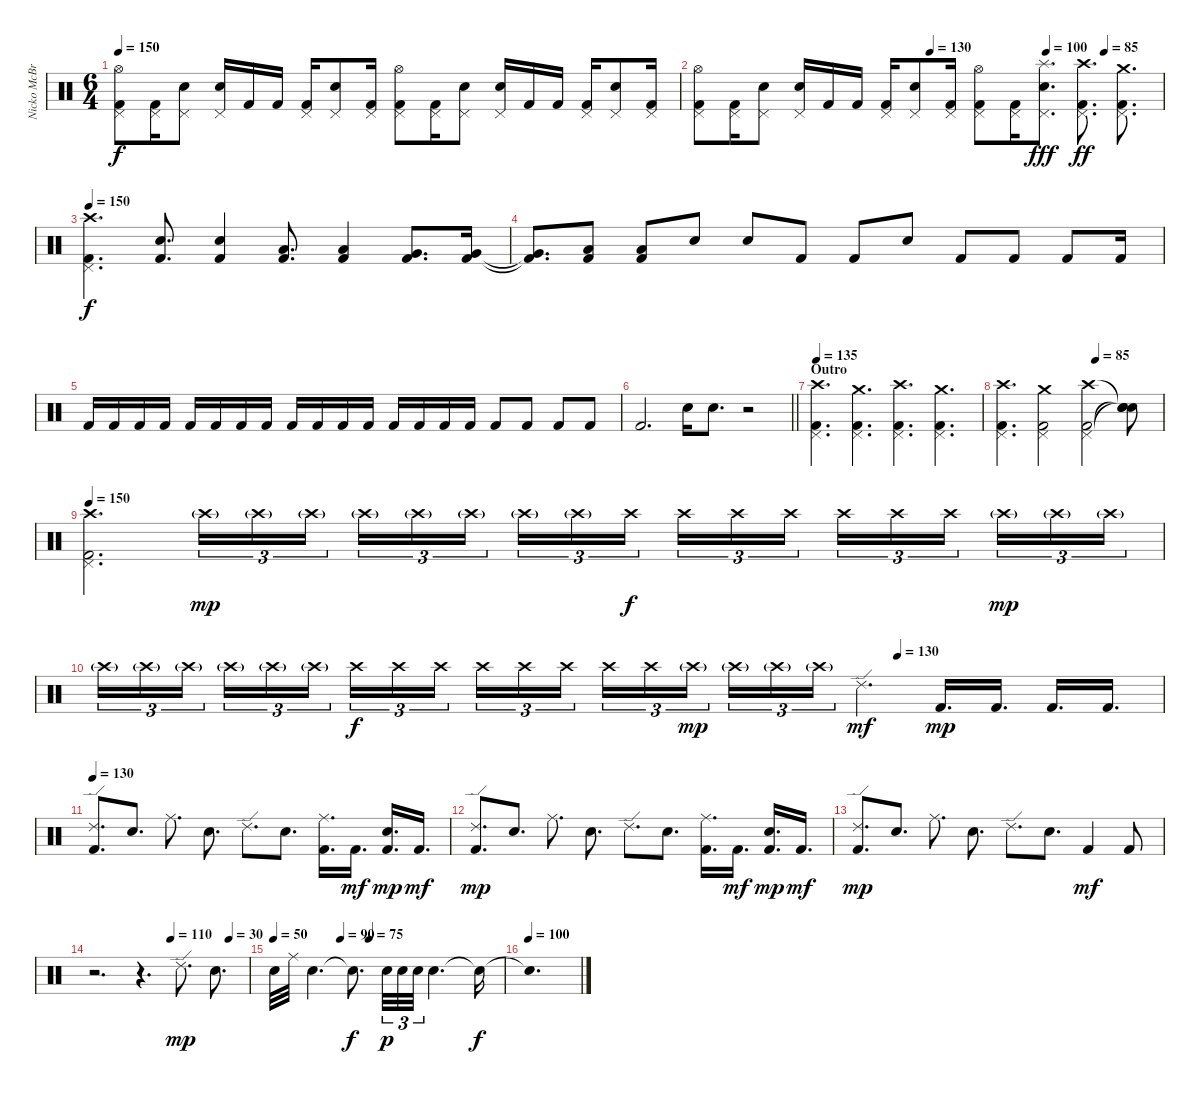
\track ("Nicko McBrain" "Nicko McBr") {instrument percussion}
\staff {score}
\articulation defaults
\ts (6 4)
\tempo 150
\clef neutral
\ks c
("Kick (hit) 2" "Pedal Hi-Hat (hit)" "Hi-Hat (open)").8{dy f} ("Kick (hit) 2" "Pedal Hi-Hat (hit)").16 ("Snare (hit) 2" "Pedal Hi-Hat (hit)").8 ("Snare (hit) 2" "Pedal Hi-Hat (hit)").16 "Kick (hit) 2".16 "Kick (hit) 2".16 ("Kick (hit) 2" "Pedal Hi-Hat (hit)").16 ("Snare (hit) 2" "Pedal Hi-Hat (hit)").8 ("Kick (hit) 2" "Pedal Hi-Hat (hit)").16 ("Kick (hit) 2" "Pedal Hi-Hat (hit)" "Hi-Hat (open)").8 ("Kick (hit) 2" "Pedal Hi-Hat (hit)").16 ("Snare (hit) 2" "Pedal Hi-Hat (hit)").8 ("Snare (hit) 2" "Pedal Hi-Hat (hit)").16 "Kick (hit) 2".16 "Kick (hit) 2".16 ("Kick (hit) 2" "Pedal Hi-Hat (hit)").16 ("Snare (hit) 2" "Pedal Hi-Hat (hit)").8 ("Kick (hit) 2" "Pedal Hi-Hat (hit)").16 |
\tempo (130 0.5)
\tempo (100 0.75)
\tempo (85 0.875)
("Kick (hit) 2" "Pedal Hi-Hat (hit)" "Hi-Hat (open)").8 ("Kick (hit) 2" "Pedal Hi-Hat (hit)").16 ("Snare (hit) 2" "Pedal Hi-Hat (hit)").8 ("Snare (hit) 2" "Pedal Hi-Hat (hit)").16 "Kick (hit) 2".16 "Kick (hit) 2".16 ("Kick (hit) 2" "Pedal Hi-Hat (hit)").16 ("Snare (hit) 2" "Pedal Hi-Hat (hit)").8 ("Kick (hit) 2" "Pedal Hi-Hat (hit)").16 ("Kick (hit) 2" "Pedal Hi-Hat (hit)" "Hi-Hat (open)").8 ("Kick (hit) 2" "Pedal Hi-Hat (hit)").16 ("Snare (hit) 2" "Pedal Hi-Hat (hit)" "Splash (hit)").8{d dy fff} ("Kick (hit) 2" "Pedal Hi-Hat (hit)" "Crash high (hit)").8{d dy ff} ("Kick (hit) 2" "Pedal Hi-Hat (hit)" "Crash medium (hit)").8{d} |
\tempo 150
("Kick (hit) 2" "Pedal Hi-Hat (hit)" "Crash high (hit)").4{d dy f} ("Kick (hit) 2" "Snare (hit) 2").8{d} ("Kick (hit) 2" "Snare (hit) 2").4 ("Kick (hit) 2" "Low Tom (hit)").8{d} ("Kick (hit) 2" "Low Tom (hit)").4 ("Kick (hit) 2" "Very Low Tom (hit)").8{d} ("Kick (hit) 2" "Very Low Tom (hit)").16 |
("Kick (hit) 2"{t} "Very Low Tom (hit)"{t}).8{d} ("Kick (hit) 2" "Low Floor Tom (hit)").8 ("Kick (hit) 2" "Low Floor Tom (hit)").8 "Snare (hit) 2".8 "Snare (hit) 2".8 "Kick (hit) 2".8 "Kick (hit) 2".8 "Snare (hit) 2".8 "Kick (hit) 2".8 "Kick (hit) 2".8 "Kick (hit) 2".8 "Kick (hit) 2".16 |
"Kick (hit) 2".16 "Kick (hit) 2".16 "Kick (hit) 2".16 "Kick (hit) 2".16 "Kick (hit) 2".16 "Kick (hit) 2".16 "Kick (hit) 2".16 "Kick (hit) 2".16 "Kick (hit) 2".16 "Kick (hit) 2".16 "Kick (hit) 2".16 "Kick (hit) 2".16 "Kick (hit) 2".16 "Kick (hit) 2".16 "Kick (hit) 2".16 "Kick (hit) 2".16 "Kick (hit) 2".8 "Kick (hit) 2".8 "Kick (hit) 2".8 "Kick (hit) 2".8 |
\barLineRight lightlight "Kick (hit) 2".2{d} "Snare (hit) 2".16 "Snare (hit) 2".8{d}
r.2 |
\section ("" "Outro")
\tempo 135
("Kick (hit) 2" "Pedal Hi-Hat (hit)" "Crash high (hit)").4{d} ("Kick (hit) 2" "Pedal Hi-Hat (hit)" "Crash medium (hit)").4{d} ("Kick (hit) 2" "Pedal Hi-Hat (hit)" "Crash high (hit)").4{d} ("Kick (hit) 2" "Pedal Hi-Hat (hit)" "Crash medium (hit)").4{d} |
\tempo (85 0.5833333333333334)
("Kick (hit) 2" "Pedal Hi-Hat (hit)" "Crash high (hit)").4{d} ("Kick (hit) 2" "Pedal Hi-Hat (hit)" "Crash medium (hit)").2 ("Kick (hit) 2" "Pedal Hi-Hat (hit)" "Crash high (hit)").2 ("Snare (hit)"{t} "Snare (hit)"{t} "Snare (hit)"{t}).8 |
\tempo 150
("Kick (hit) 2" "Pedal Hi-Hat (hit)" "Crash high (hit)").2{d} "Crash high (hit)"{g}.16{tu (3 2) dy mp} "Crash high (hit)"{g}.16{tu (3 2)} "Crash high (hit)"{g}.16{tu (3 2) beam splitsecondary} "Crash high (hit)"{g}.16{tu (3 2)} "Crash high (hit)"{g}.16{tu (3 2)} "Crash high (hit)"{g}.16{tu (3 2) beam splitsecondary} "Crash high (hit)"{g}.16{tu (3 2)} "Crash high (hit)"{g}.16{tu (3 2)} "Crash high (hit)".16{tu (3 2) dy f beam splitsecondary} "Crash high (hit)".16{tu (3 2)} "Crash high (hit)".16{tu (3 2)} "Crash high (hit)".16{tu (3 2) beam splitsecondary} "Crash high (hit)".16{tu (3 2)} "Crash high (hit)".16{tu (3 2)} "Crash high (hit)".16{tu (3 2) beam splitsecondary} "Crash high (hit)"{g}.16{tu (3 2) dy mp} "Crash high (hit)"{g}.16{tu (3 2)} "Crash high (hit)"{g}.16{tu (3 2)} |
\tempo (130 0.75)
"Crash high (hit)"{g}.16{tu (3 2)} "Crash high (hit)"{g}.16{tu (3 2)} "Crash high (hit)"{g}.16{tu (3 2) beam splitsecondary} "Crash high (hit)"{g}.16{tu (3 2)} "Crash high (hit)"{g}.16{tu (3 2)} "Crash high (hit)"{g}.16{tu (3 2) beam splitsecondary} "Crash high (hit)".16{tu (3 2) dy f} "Crash high (hit)".16{tu (3 2)} "Crash high (hit)".16{tu (3 2) beam splitsecondary} "Crash high (hit)".16{tu (3 2)} "Crash high (hit)".16{tu (3 2)} "Crash high (hit)".16{tu (3 2) beam splitsecondary} "Crash high (hit)".16{tu (3 2)} "Crash high (hit)".16{tu (3 2)} "Crash high (hit)"{g}.16{tu (3 2) dy mp beam splitsecondary} "Crash high (hit)"{g}.16{tu (3 2)} "Crash high (hit)"{g}.16{tu (3 2)} "Crash high (hit)"{g}.16{tu (3 2)} "Ride (edge) 2".4{d dy mf} "Kick (hit) 2".16{d dy mp} "Kick (hit) 2".16{d} "Kick (hit) 2".16{d} "Kick (hit) 2".16{d} |
\tempo 130
("Kick (hit) 2" "Ride (edge) 2").8{d} "Metronome (bell)".8{d} "Ride (middle)".8{d} "Metronome (bell)".8{d} "Ride (edge) 2".8{d} "Metronome (bell)".8{d} ("Kick (hit) 2" "Ride (middle)").16{d} "Kick (hit) 2".16{d dy mf} ("Kick (hit) 2" "Metronome (bell)").16{d dy mp} "Kick (hit) 2".16{d dy mf} |
("Kick (hit) 2" "Ride (edge) 2").8{d dy mp} "Metronome (bell)".8{d} "Ride (middle)".8{d} "Metronome (bell)".8{d} "Ride (edge) 2".8{d} "Metronome (bell)".8{d} ("Kick (hit) 2" "Ride (middle)").16{d} "Kick (hit) 2".16{d dy mf} ("Kick (hit) 2" "Metronome (bell)").16{d dy mp} "Kick (hit) 2".16{d dy mf} |
("Kick (hit) 2" "Ride (edge) 2").8{d dy mp} "Metronome (bell)".8{d} "Ride (middle)".8{d} "Metronome (bell)".8{d} "Ride (edge) 2".8{d} "Metronome (bell)".8{d} "Kick (hit) 2".4{dy mf} "Kick (hit) 2".8 |
\tempo (110 0.5)
\tempo (30 0.875)
r.2{d} r.4{d} "Ride (edge) 2".8{d dy mp} "Metronome (bell)".8{d} |
\tempo 50
\tempo (90 0.2916666666666667)
\tempo (75 0.4166666666666667)
"Metronome (bell)".32 "Ride (middle)".32 "Metronome (bell)".4{d} "Metronome (bell)"{t}.8{d dy f} "Metronome (bell)".32{tu (3 2) dy p} "Metronome (bell)".32{tu (3 2)} "Metronome (bell)".32{tu (3 2)} "Metronome (bell)".2{d} "Metronome (bell)"{t}.16{dy f} |
\tempo (100)
"Metronome (bell)"{t}.1{d}
